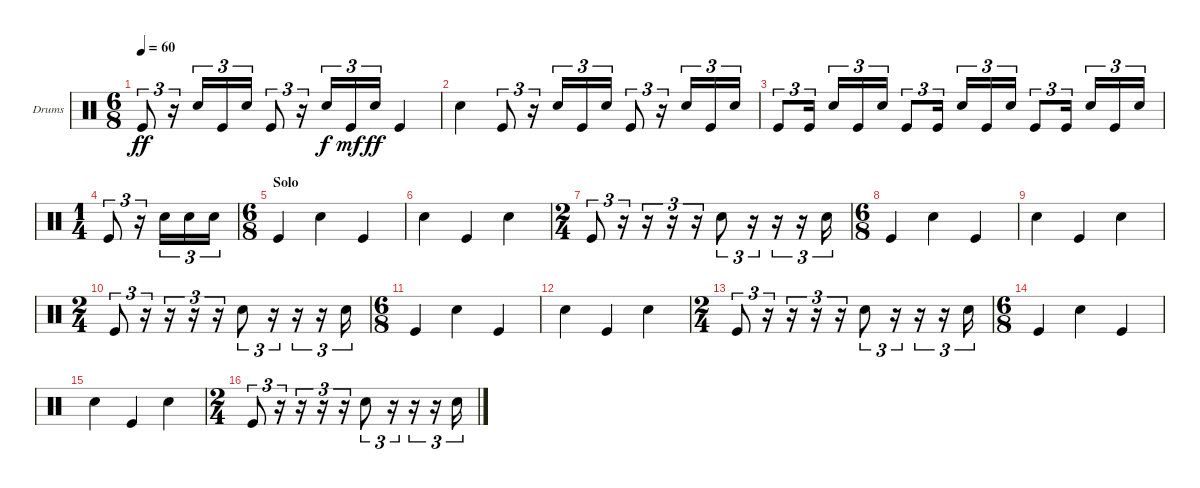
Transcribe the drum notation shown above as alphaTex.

\defaultSystemsLayout 4
\bracketExtendMode groupsimilarinstruments
\firstSystemTrackNameOrientation horizontal
\otherSystemsTrackNameOrientation horizontal
\track ("Drumkit" "Drums") {instrument percussion}
\staff {score}
\articulation defaults
\ts (6 8)
\tempo 60
\clef neutral
\ks c "Kick (hit)".8{tu (3 2) dy ff}
r.16{tu (3 2)} "Snare (hit) 2".16{tu (3 2)} "Kick (hit)".16{tu (3 2)} "Snare (hit) 2".16{tu (3 2)} "Kick (hit)".8{tu (3 2)} r.16{tu (3 2)} "Snare (hit) 2".16{tu (3 2) dy f} "Kick (hit)".16{tu (3 2) dy mf} "Snare (hit) 2".16{tu (3 2) dy ff} "Kick (hit)".4 |
"Snare (hit) 2".4 "Kick (hit)".8{tu (3 2)} r.16{tu (3 2)} "Snare (hit) 2".16{tu (3 2)} "Kick (hit)".16{tu (3 2)} "Snare (hit) 2".16{tu (3 2)} "Kick (hit)".8{tu (3 2)} r.16{tu (3 2)} "Snare (hit) 2".16{tu (3 2)} "Kick (hit)".16{tu (3 2)} "Snare (hit) 2".16{tu (3 2)} |
"Kick (hit)".8{tu (3 2)} "Kick (hit)".16{tu (3 2)} "Snare (hit) 2".16{tu (3 2)} "Kick (hit)".16{tu (3 2)} "Snare (hit) 2".16{tu (3 2)} "Kick (hit)".8{tu (3 2)} "Kick (hit)".16{tu (3 2)} "Snare (hit) 2".16{tu (3 2)} "Kick (hit)".16{tu (3 2)} "Snare (hit) 2".16{tu (3 2)} "Kick (hit)".8{tu (3 2)} "Kick (hit)".16{tu (3 2)} "Snare (hit) 2".16{tu (3 2)} "Kick (hit)".16{tu (3 2)} "Snare (hit) 2".16{tu (3 2)} |
\ts (1 4)
"Kick (hit)".8{tu (3 2)} r.16{tu (3 2)} "Snare (hit) 2".16{tu (3 2)} "Snare (hit) 2".16{tu (3 2)} "Snare (hit) 2".16{tu (3 2)} |
\ts (6 8)
\section ("" "Solo")
"Kick (hit)".4 "Snare (hit) 2".4 "Kick (hit)".4 |
"Snare (hit) 2".4 "Kick (hit)".4 "Snare (hit) 2".4 |
\ts (2 4)
"Kick (hit)".8{tu (3 2)} r.16{tu (3 2)} r.16{tu (3 2)} r.16{tu (3 2)} r.16{tu (3 2)} "Snare (hit) 2".8{tu (3 2)} r.16{tu (3 2)} r.16{tu (3 2)} r.16{tu (3 2)} "Snare (hit) 2".16{tu (3 2)} |
\ts (6 8)
"Kick (hit)".4 "Snare (hit) 2".4 "Kick (hit)".4 |
"Snare (hit) 2".4 "Kick (hit)".4 "Snare (hit) 2".4 |
\ts (2 4)
"Kick (hit)".8{tu (3 2)} r.16{tu (3 2)} r.16{tu (3 2)} r.16{tu (3 2)} r.16{tu (3 2)} "Snare (hit) 2".8{tu (3 2)} r.16{tu (3 2)} r.16{tu (3 2)} r.16{tu (3 2)} "Snare (hit) 2".16{tu (3 2)} |
\ts (6 8)
"Kick (hit)".4 "Snare (hit) 2".4 "Kick (hit)".4 |
"Snare (hit) 2".4 "Kick (hit)".4 "Snare (hit) 2".4 |
\ts (2 4)
"Kick (hit)".8{tu (3 2)} r.16{tu (3 2)} r.16{tu (3 2)} r.16{tu (3 2)} r.16{tu (3 2)} "Snare (hit) 2".8{tu (3 2)} r.16{tu (3 2)} r.16{tu (3 2)} r.16{tu (3 2)} "Snare (hit) 2".16{tu (3 2)} |
\ts (6 8)
"Kick (hit)".4 "Snare (hit) 2".4 "Kick (hit)".4 |
"Snare (hit) 2".4 "Kick (hit)".4 "Snare (hit) 2".4 |
\ts (2 4)
"Kick (hit)".8{tu (3 2)} r.16{tu (3 2)} r.16{tu (3 2)} r.16{tu (3 2)} r.16{tu (3 2)} "Snare (hit) 2".8{tu (3 2)} r.16{tu (3 2)} r.16{tu (3 2)} r.16{tu (3 2)} "Snare (hit) 2".16{tu (3 2)}
